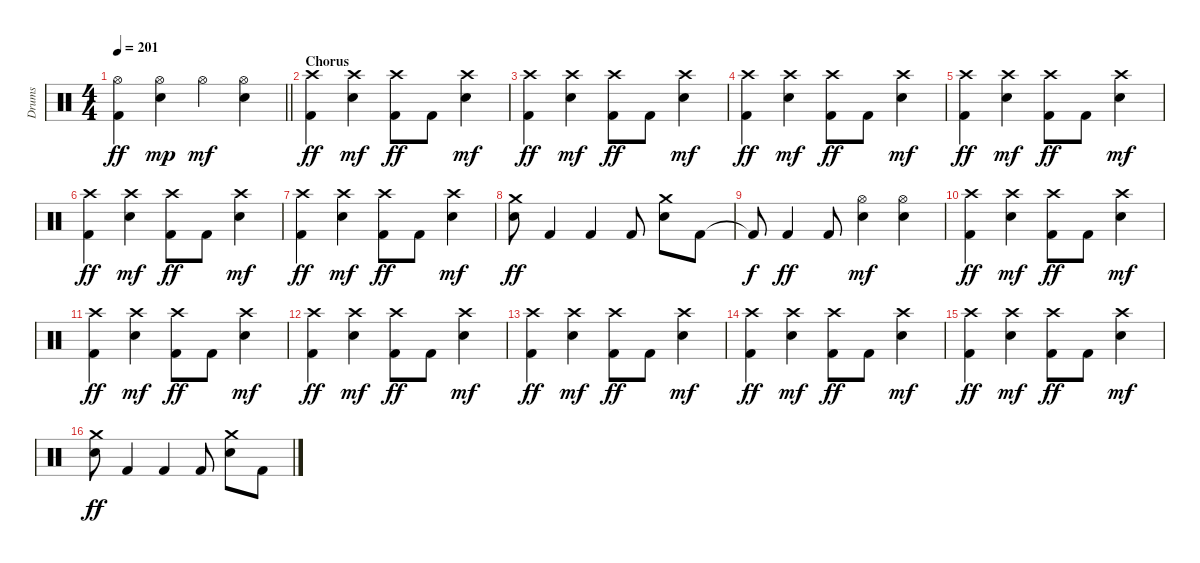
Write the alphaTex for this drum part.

\track ("Drums" "Drums") {instrument percussion}
\staff {score}
\articulation defaults
\ts (4 4)
\tempo 201
\clef neutral
\barLineRight lightlight
\ks c
("Hi-Hat (open)" "Kick (hit) 2").4{dy ff} ("Hi-Hat (open)" "Snare (hit) 2").4{dy mp} "Hi-Hat (open)".4{dy mf} ("Hi-Hat (open)" "Snare (hit) 2").4 |
\section ("" "Chorus")
("Crash high (hit)" "Kick (hit) 2").4{dy ff} ("Crash high (hit)" "Snare (hit) 2").4{dy mf} ("Crash high (hit)" "Kick (hit) 2").8{dy ff} "Kick (hit) 2".8 ("Crash high (hit)" "Snare (hit) 2").4{dy mf} |
("Crash high (hit)" "Kick (hit) 2").4{dy ff} ("Crash high (hit)" "Snare (hit) 2").4{dy mf} ("Crash high (hit)" "Kick (hit) 2").8{dy ff} "Kick (hit) 2".8 ("Crash high (hit)" "Snare (hit) 2").4{dy mf} |
("Crash high (hit)" "Kick (hit) 2").4{dy ff} ("Crash high (hit)" "Snare (hit) 2").4{dy mf} ("Crash high (hit)" "Kick (hit) 2").8{dy ff} "Kick (hit) 2".8 ("Crash high (hit)" "Snare (hit) 2").4{dy mf} |
("Crash high (hit)" "Kick (hit) 2").4{dy ff} ("Crash high (hit)" "Snare (hit) 2").4{dy mf} ("Crash high (hit)" "Kick (hit) 2").8{dy ff} "Kick (hit) 2".8 ("Crash high (hit)" "Snare (hit) 2").4{dy mf} |
("Crash high (hit)" "Kick (hit) 2").4{dy ff} ("Crash high (hit)" "Snare (hit) 2").4{dy mf} ("Crash high (hit)" "Kick (hit) 2").8{dy ff} "Kick (hit) 2".8 ("Crash high (hit)" "Snare (hit) 2").4{dy mf} |
("Crash high (hit)" "Kick (hit) 2").4{dy ff} ("Crash high (hit)" "Snare (hit) 2").4{dy mf} ("Crash high (hit)" "Kick (hit) 2").8{dy ff} "Kick (hit) 2".8 ("Crash high (hit)" "Snare (hit) 2").4{dy mf} |
("Crash medium (hit)" "Snare (hit) 2").8{dy ff} "Kick (hit) 2".4 "Kick (hit) 2".4 "Kick (hit) 2".8 ("Crash medium (hit)" "Snare (hit) 2").8 "Kick (hit) 2".8 |
"Kick (hit) 2"{t}.8{dy f} "Kick (hit) 2".4{dy ff} "Kick (hit) 2".8 ("Hi-Hat (open)" "Snare (hit) 2").4{dy mf} ("Hi-Hat (open)" "Snare (hit) 2").4 |
("Crash high (hit)" "Kick (hit) 2").4{dy ff} ("Crash high (hit)" "Snare (hit) 2").4{dy mf} ("Crash high (hit)" "Kick (hit) 2").8{dy ff} "Kick (hit) 2".8 ("Crash high (hit)" "Snare (hit) 2").4{dy mf} |
("Crash high (hit)" "Kick (hit) 2").4{dy ff} ("Crash high (hit)" "Snare (hit) 2").4{dy mf} ("Crash high (hit)" "Kick (hit) 2").8{dy ff} "Kick (hit) 2".8 ("Crash high (hit)" "Snare (hit) 2").4{dy mf} |
("Crash high (hit)" "Kick (hit) 2").4{dy ff} ("Crash high (hit)" "Snare (hit) 2").4{dy mf} ("Crash high (hit)" "Kick (hit) 2").8{dy ff} "Kick (hit) 2".8 ("Crash high (hit)" "Snare (hit) 2").4{dy mf} |
("Crash high (hit)" "Kick (hit) 2").4{dy ff} ("Crash high (hit)" "Snare (hit) 2").4{dy mf} ("Crash high (hit)" "Kick (hit) 2").8{dy ff} "Kick (hit) 2".8 ("Crash high (hit)" "Snare (hit) 2").4{dy mf} |
("Crash high (hit)" "Kick (hit) 2").4{dy ff} ("Crash high (hit)" "Snare (hit) 2").4{dy mf} ("Crash high (hit)" "Kick (hit) 2").8{dy ff} "Kick (hit) 2".8 ("Crash high (hit)" "Snare (hit) 2").4{dy mf} |
("Crash high (hit)" "Kick (hit) 2").4{dy ff} ("Crash high (hit)" "Snare (hit) 2").4{dy mf} ("Crash high (hit)" "Kick (hit) 2").8{dy ff} "Kick (hit) 2".8 ("Crash high (hit)" "Snare (hit) 2").4{dy mf} |
("Crash medium (hit)" "Snare (hit) 2").8{dy ff} "Kick (hit) 2".4 "Kick (hit) 2".4 "Kick (hit) 2".8 ("Crash medium (hit)" "Snare (hit) 2").8 "Kick (hit) 2".8
